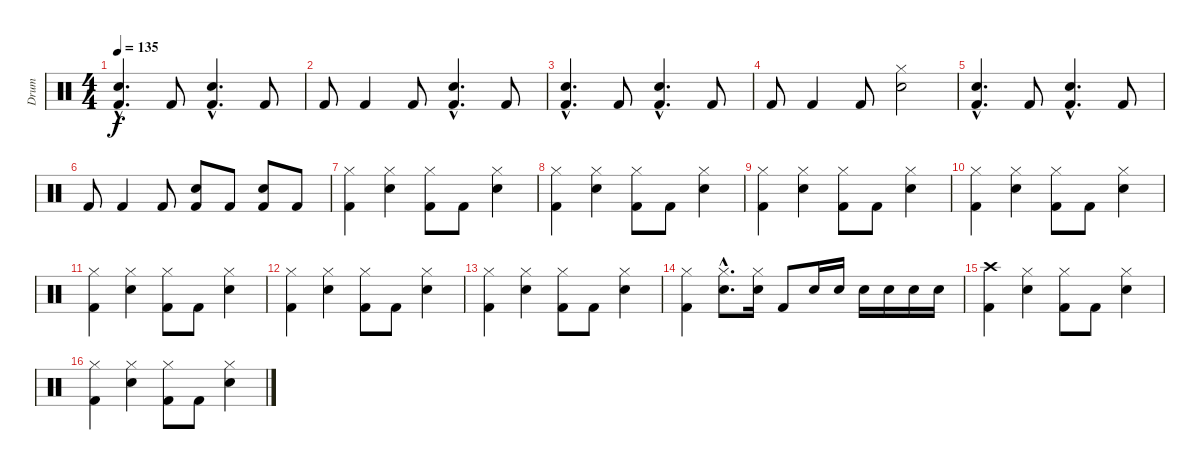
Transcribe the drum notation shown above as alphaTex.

\track ("Drum" "Drum") {instrument percussion}
\staff {score}
\articulation defaults
\ts (4 4)
\tempo 135
\clef neutral
\ks c
("Snare (hit) 2"{hac} "Kick (hit) 2"{hac}).4{d dy f} "Kick (hit) 2".8 ("Electric Snare (hit)"{hac} "Kick (hit) 2"{hac}).4{d} "Kick (hit) 2".8 |
"Kick (hit) 2".8 "Kick (hit) 2".4 "Kick (hit) 2".8 ("Electric Snare (hit)"{hac} "Kick (hit) 2"{hac}).4{d} "Kick (hit) 2".8 |
("Snare (hit) 2"{hac} "Kick (hit) 2"{hac}).4{d} "Kick (hit) 2".8 ("Electric Snare (hit)"{hac} "Kick (hit) 2"{hac}).4{d} "Kick (hit) 2".8 |
"Kick (hit) 2".8 "Kick (hit) 2".4 "Kick (hit) 2".8 ("Electric Snare (hit)" "Hi-Hat (closed)").2 |
("Snare (hit) 2"{hac} "Kick (hit) 2"{hac}).4{d} "Kick (hit) 2".8 ("Electric Snare (hit)"{hac} "Kick (hit) 2"{hac}).4{d} "Kick (hit) 2".8 |
"Kick (hit) 2".8 "Kick (hit) 2".4 "Kick (hit) 2".8 ("Electric Snare (hit)" "Kick (hit) 2").8 "Kick (hit) 2".8 ("Electric Snare (hit)" "Kick (hit) 2").8 "Kick (hit) 2".8 |
("Kick (hit) 2" "Hi-Hat (closed)").4 ("Snare (hit) 2" "Hi-Hat (closed)").4 ("Kick (hit) 2" "Hi-Hat (closed)").8 "Kick (hit) 2".8 ("Snare (hit) 2" "Hi-Hat (closed)").4 |
("Kick (hit) 2" "Hi-Hat (closed)").4 ("Snare (hit) 2" "Hi-Hat (closed)").4 ("Kick (hit) 2" "Hi-Hat (closed)").8 "Kick (hit) 2".8 ("Snare (hit) 2" "Hi-Hat (closed)").4 |
("Kick (hit) 2" "Hi-Hat (closed)").4 ("Snare (hit) 2" "Hi-Hat (closed)").4 ("Kick (hit) 2" "Hi-Hat (closed)").8 "Kick (hit) 2".8 ("Snare (hit) 2" "Hi-Hat (closed)").4 |
("Kick (hit) 2" "Hi-Hat (closed)").4 ("Snare (hit) 2" "Hi-Hat (closed)").4 ("Kick (hit) 2" "Hi-Hat (closed)").8 "Kick (hit) 2".8 ("Snare (hit) 2" "Hi-Hat (closed)").4 |
("Kick (hit) 2" "Hi-Hat (closed)").4 ("Snare (hit) 2" "Hi-Hat (closed)").4 ("Kick (hit) 2" "Hi-Hat (closed)").8 "Kick (hit) 2".8 ("Snare (hit) 2" "Hi-Hat (closed)").4 |
("Kick (hit) 2" "Hi-Hat (closed)").4 ("Snare (hit) 2" "Hi-Hat (closed)").4 ("Kick (hit) 2" "Hi-Hat (closed)").8 "Kick (hit) 2".8 ("Snare (hit) 2" "Hi-Hat (closed)").4 |
("Kick (hit) 2" "Hi-Hat (closed)").4 ("Snare (hit) 2" "Hi-Hat (closed)").4 ("Kick (hit) 2" "Hi-Hat (closed)").8 "Kick (hit) 2".8 ("Snare (hit) 2" "Hi-Hat (closed)").4 |
("Kick (hit) 2" "Hi-Hat (closed)").4 ("Snare (hit) 2"{hac} "Hi-Hat (closed)"{hac}).8{d} ("Snare (hit) 2" "Hi-Hat (closed)").16 "Kick (hit) 2".8 "Snare (hit) 2".16 "Snare (hit) 2".16 "Snare (hit) 2".16 "Snare (hit) 2".16 "Snare (hit) 2".16 "Snare (hit) 2".16 |
("Kick (hit) 2" "Crash high (hit)").4 ("Snare (hit) 2" "Hi-Hat (closed)").4 ("Kick (hit) 2" "Hi-Hat (closed)").8 "Kick (hit) 2".8 ("Snare (hit) 2" "Hi-Hat (closed)").4 |
("Kick (hit) 2" "Hi-Hat (closed)").4 ("Snare (hit) 2" "Hi-Hat (closed)").4 ("Kick (hit) 2" "Hi-Hat (closed)").8 "Kick (hit) 2".8 ("Snare (hit) 2" "Hi-Hat (closed)").4
